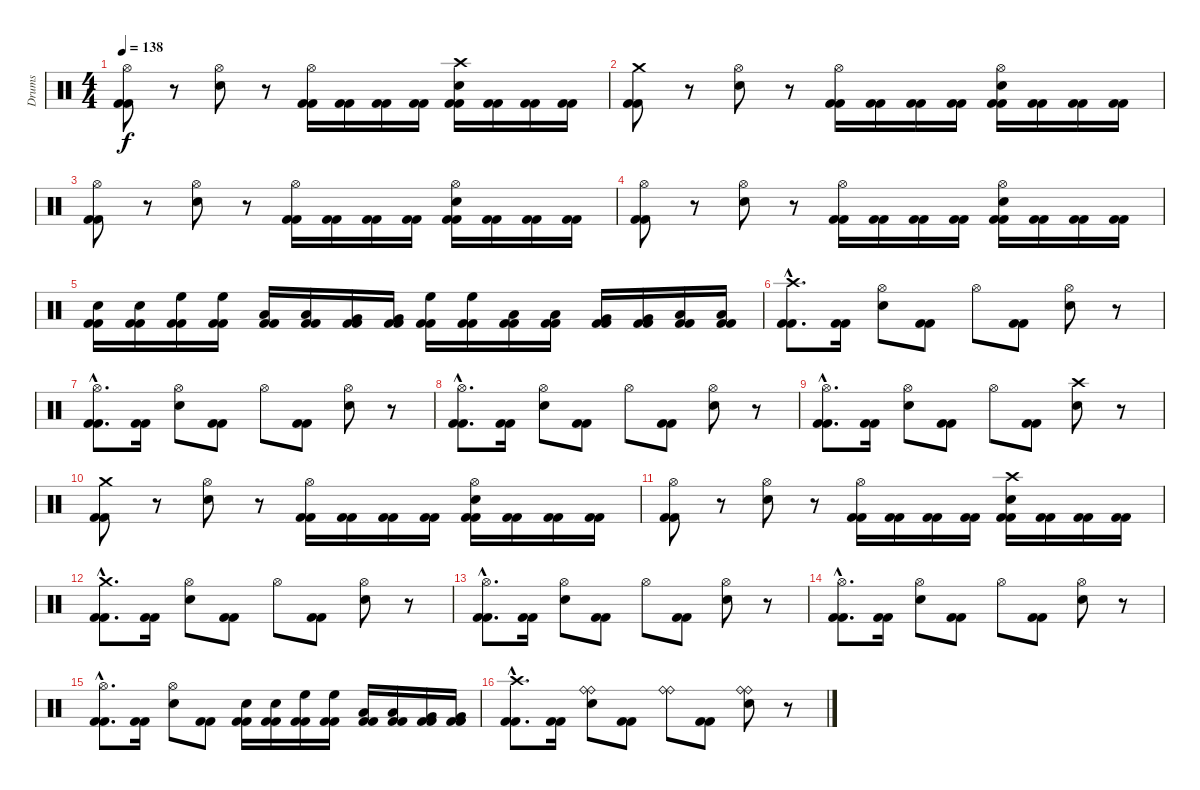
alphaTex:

\track ("Drums" "Drums") {instrument percussion}
\staff {score}
\articulation defaults
\ts (4 4)
\tempo 138
\clef neutral
\ks c
("Hi-Hat (open)" "Kick (hit) 2" "Kick (hit) 2").8{dy f} r.8 ("Hi-Hat (open)" "Electric Snare (hit)").8 r.8 ("Hi-Hat (open)" "Kick (hit) 2" "Kick (hit) 2").16 ("Kick (hit) 2" "Kick (hit) 2").16 ("Kick (hit) 2" "Kick (hit) 2").16 ("Kick (hit) 2" "Kick (hit) 2").16 ("Crash high (hit)" "Electric Snare (hit)" "Kick (hit) 2" "Kick (hit) 2").16 ("Kick (hit) 2" "Kick (hit) 2").16 ("Kick (hit) 2" "Kick (hit) 2").16 ("Kick (hit) 2" "Kick (hit) 2").16 |
("Crash medium (hit)" "Kick (hit) 2" "Kick (hit) 2").8 r.8 ("Hi-Hat (open)" "Electric Snare (hit)").8 r.8 ("Hi-Hat (open)" "Kick (hit) 2" "Kick (hit) 2").16 ("Kick (hit) 2" "Kick (hit) 2").16 ("Kick (hit) 2" "Kick (hit) 2").16 ("Kick (hit) 2" "Kick (hit) 2").16 ("Hi-Hat (open)" "Electric Snare (hit)" "Kick (hit) 2" "Kick (hit) 2").16 ("Kick (hit) 2" "Kick (hit) 2").16 ("Kick (hit) 2" "Kick (hit) 2").16 ("Kick (hit) 2" "Kick (hit) 2").16 |
("Hi-Hat (open)" "Kick (hit) 2" "Kick (hit) 2").8 r.8 ("Hi-Hat (open)" "Electric Snare (hit)").8 r.8 ("Hi-Hat (open)" "Kick (hit) 2" "Kick (hit) 2").16 ("Kick (hit) 2" "Kick (hit) 2").16 ("Kick (hit) 2" "Kick (hit) 2").16 ("Kick (hit) 2" "Kick (hit) 2").16 ("Hi-Hat (open)" "Electric Snare (hit)" "Kick (hit) 2" "Kick (hit) 2").16 ("Kick (hit) 2" "Kick (hit) 2").16 ("Kick (hit) 2" "Kick (hit) 2").16 ("Kick (hit) 2" "Kick (hit) 2").16 |
("Hi-Hat (open)" "Kick (hit) 2" "Kick (hit) 2").8 r.8 ("Hi-Hat (open)" "Electric Snare (hit)").8 r.8 ("Hi-Hat (open)" "Kick (hit) 2" "Kick (hit) 2").16 ("Kick (hit) 2" "Kick (hit) 2").16 ("Kick (hit) 2" "Kick (hit) 2").16 ("Kick (hit) 2" "Kick (hit) 2").16 ("Hi-Hat (open)" "Electric Snare (hit)" "Kick (hit) 2" "Kick (hit) 2").16 ("Kick (hit) 2" "Kick (hit) 2").16 ("Kick (hit) 2" "Kick (hit) 2").16 ("Kick (hit) 2" "Kick (hit) 2").16 |
("Electric Snare (hit)" "Kick (hit) 2" "Kick (hit) 2").16 ("Electric Snare (hit)" "Kick (hit) 2" "Kick (hit) 2").16 ("High Floor Tom (hit)" "Kick (hit) 2" "Kick (hit) 2").16 ("High Floor Tom (hit)" "Kick (hit) 2" "Kick (hit) 2").16 ("Low Tom (hit)" "Kick (hit) 2" "Kick (hit) 2").16 ("Low Tom (hit)" "Kick (hit) 2" "Kick (hit) 2").16 ("Very Low Tom (hit)" "Kick (hit) 2" "Kick (hit) 2").16 ("Very Low Tom (hit)" "Kick (hit) 2" "Kick (hit) 2").16 ("High Floor Tom (hit)" "Kick (hit) 2" "Kick (hit) 2").16 ("High Floor Tom (hit)" "Kick (hit) 2" "Kick (hit) 2").16 ("Low Tom (hit)" "Kick (hit) 2" "Kick (hit) 2").16 ("Low Tom (hit)" "Kick (hit) 2" "Kick (hit) 2").16 ("Very Low Tom (hit)" "Kick (hit) 2" "Kick (hit) 2").16 ("Very Low Tom (hit)" "Kick (hit) 2" "Kick (hit) 2").16 ("Low Floor Tom (hit)" "Kick (hit) 2" "Kick (hit) 2").16 ("Low Floor Tom (hit)" "Kick (hit) 2" "Kick (hit) 2").16 |
("Crash high (hit)"{hac} "Kick (hit) 2"{hac} "Kick (hit) 2"{hac}).8{d} ("Kick (hit) 2" "Kick (hit) 2").16 ("Hi-Hat (open)" "Electric Snare (hit)").8 ("Kick (hit) 2" "Kick (hit) 2").8 "Hi-Hat (open)".8 ("Kick (hit) 2" "Kick (hit) 2").8 ("Hi-Hat (open)" "Electric Snare (hit)").8 r.8 |
("Hi-Hat (open)"{hac} "Kick (hit) 2"{hac} "Kick (hit) 2"{hac}).8{d} ("Kick (hit) 2" "Kick (hit) 2").16 ("Hi-Hat (open)" "Electric Snare (hit)").8 ("Kick (hit) 2" "Kick (hit) 2").8 "Hi-Hat (open)".8 ("Kick (hit) 2" "Kick (hit) 2").8 ("Hi-Hat (open)" "Electric Snare (hit)").8 r.8 |
("Hi-Hat (open)"{hac} "Kick (hit) 2"{hac} "Kick (hit) 2"{hac}).8{d} ("Kick (hit) 2" "Kick (hit) 2").16 ("Hi-Hat (open)" "Electric Snare (hit)").8 ("Kick (hit) 2" "Kick (hit) 2").8 "Hi-Hat (open)".8 ("Kick (hit) 2" "Kick (hit) 2").8 ("Hi-Hat (open)" "Electric Snare (hit)").8 r.8 |
("Hi-Hat (open)"{hac} "Kick (hit) 2"{hac} "Kick (hit) 2"{hac}).8{d} ("Kick (hit) 2" "Kick (hit) 2").16 ("Hi-Hat (open)" "Electric Snare (hit)").8 ("Kick (hit) 2" "Kick (hit) 2").8 "Hi-Hat (open)".8 ("Kick (hit) 2" "Kick (hit) 2").8 ("Crash high (hit)" "Electric Snare (hit)").8 r.8 |
("Crash medium (hit)" "Kick (hit) 2" "Kick (hit) 2").8 r.8 ("Hi-Hat (open)" "Electric Snare (hit)").8 r.8 ("Hi-Hat (open)" "Kick (hit) 2" "Kick (hit) 2").16 ("Kick (hit) 2" "Kick (hit) 2").16 ("Kick (hit) 2" "Kick (hit) 2").16 ("Kick (hit) 2" "Kick (hit) 2").16 ("Hi-Hat (open)" "Electric Snare (hit)" "Kick (hit) 2" "Kick (hit) 2").16 ("Kick (hit) 2" "Kick (hit) 2").16 ("Kick (hit) 2" "Kick (hit) 2").16 ("Kick (hit) 2" "Kick (hit) 2").16 |
("Hi-Hat (open)" "Kick (hit) 2" "Kick (hit) 2").8 r.8 ("Hi-Hat (open)" "Electric Snare (hit)").8 r.8 ("Hi-Hat (open)" "Kick (hit) 2" "Kick (hit) 2").16 ("Kick (hit) 2" "Kick (hit) 2").16 ("Kick (hit) 2" "Kick (hit) 2").16 ("Kick (hit) 2" "Kick (hit) 2").16 ("Crash high (hit)" "Electric Snare (hit)" "Kick (hit) 2" "Kick (hit) 2").16 ("Kick (hit) 2" "Kick (hit) 2").16 ("Kick (hit) 2" "Kick (hit) 2").16 ("Kick (hit) 2" "Kick (hit) 2").16 |
("Crash medium (hit)"{hac} "Kick (hit) 2"{hac} "Kick (hit) 2"{hac}).8{d} ("Kick (hit) 2" "Kick (hit) 2").16 ("Hi-Hat (open)" "Electric Snare (hit)").8 ("Kick (hit) 2" "Kick (hit) 2").8 "Hi-Hat (open)".8 ("Kick (hit) 2" "Kick (hit) 2").8 ("Hi-Hat (open)" "Electric Snare (hit)").8 r.8 |
("Hi-Hat (open)"{hac} "Kick (hit) 2"{hac} "Kick (hit) 2"{hac}).8{d} ("Kick (hit) 2" "Kick (hit) 2").16 ("Hi-Hat (open)" "Electric Snare (hit)").8 ("Kick (hit) 2" "Kick (hit) 2").8 "Hi-Hat (open)".8 ("Kick (hit) 2" "Kick (hit) 2").8 ("Hi-Hat (open)" "Electric Snare (hit)").8 r.8 |
("Hi-Hat (open)"{hac} "Kick (hit) 2"{hac} "Kick (hit) 2"{hac}).8{d} ("Kick (hit) 2" "Kick (hit) 2").16 ("Hi-Hat (open)" "Electric Snare (hit)").8 ("Kick (hit) 2" "Kick (hit) 2").8 "Hi-Hat (open)".8 ("Kick (hit) 2" "Kick (hit) 2").8 ("Hi-Hat (open)" "Electric Snare (hit)").8 r.8 |
("Hi-Hat (open)"{hac} "Kick (hit) 2"{hac} "Kick (hit) 2"{hac}).8{d} ("Kick (hit) 2" "Kick (hit) 2").16 ("Hi-Hat (open)" "Electric Snare (hit)").8 ("Kick (hit) 2" "Kick (hit) 2").8 ("Electric Snare (hit)" "Kick (hit) 2" "Kick (hit) 2").16 ("Electric Snare (hit)" "Kick (hit) 2" "Kick (hit) 2").16 ("High Floor Tom (hit)" "Kick (hit) 2" "Kick (hit) 2").16 ("High Floor Tom (hit)" "Kick (hit) 2" "Kick (hit) 2").16 ("Low Tom (hit)" "Kick (hit) 2" "Kick (hit) 2").16 ("Low Tom (hit)" "Kick (hit) 2" "Kick (hit) 2").16 ("Very Low Tom (hit)" "Kick (hit) 2" "Kick (hit) 2").16 ("Very Low Tom (hit)" "Kick (hit) 2" "Kick (hit) 2").16 |
("Crash high (hit)"{hac} "Kick (hit) 2"{hac} "Kick (hit) 2"{hac}).8{d} ("Kick (hit) 2" "Kick (hit) 2").16 ("Ride (bell)" "Ride (bell)" "Electric Snare (hit)").8 ("Kick (hit) 2" "Kick (hit) 2").8 ("Ride (bell)" "Ride (bell)").8 ("Kick (hit) 2" "Kick (hit) 2").8 ("Ride (bell)" "Ride (bell)" "Electric Snare (hit)").8 r.8
